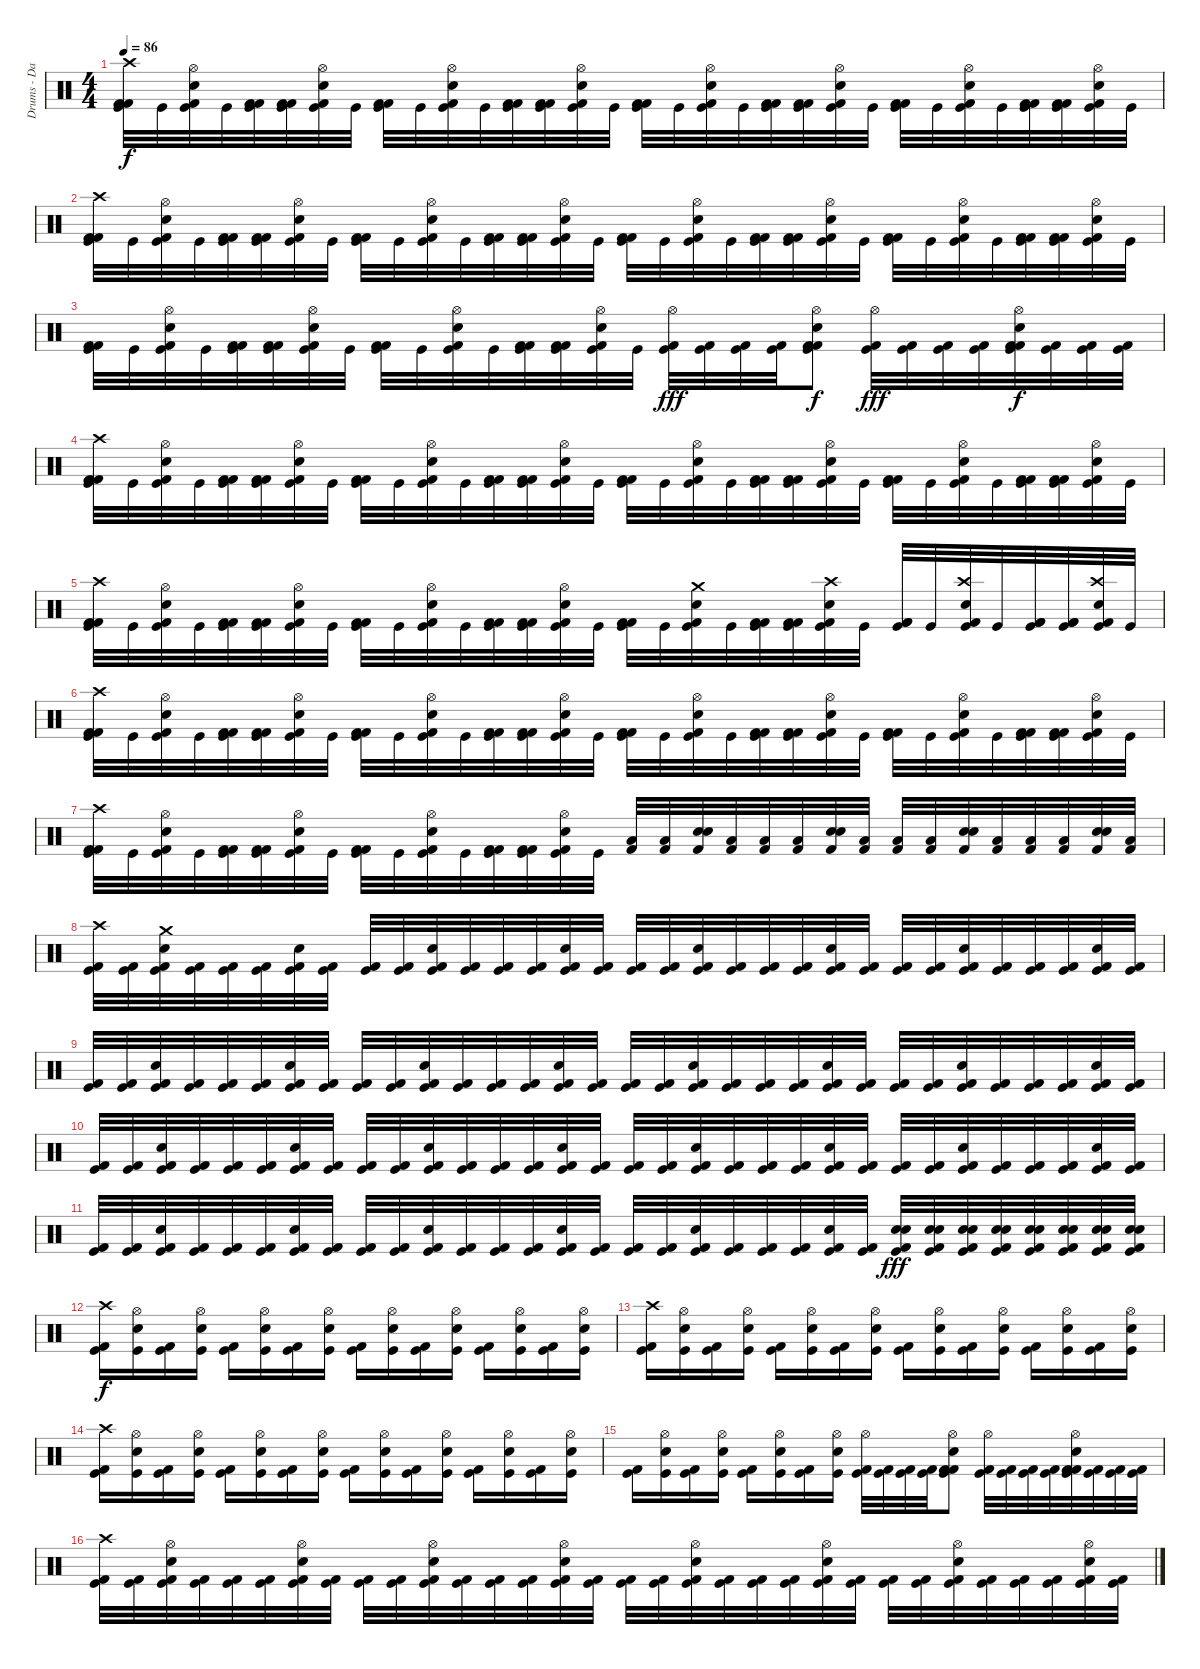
\track ("Drums - Daniel Zimmermann" "Drums - Da") {instrument percussion}
\staff {score}
\articulation defaults
\ts (4 4)
\tempo 86
\clef neutral
\ks c
("Kick (hit)" "Kick (hit) 2" "Kick (hit) 2" "Crash high (hit)").32{dy f} "Kick (hit)".32 ("Kick (hit)" "Kick (hit) 2" "Electric Snare (hit)" "Hi-Hat (open)").32 "Kick (hit)".32 ("Kick (hit)" "Kick (hit) 2" "Kick (hit) 2").32 ("Kick (hit)" "Kick (hit) 2" "Kick (hit) 2").32 ("Kick (hit)" "Kick (hit) 2" "Electric Snare (hit)" "Hi-Hat (open)").32 "Kick (hit)".32 ("Kick (hit)" "Kick (hit) 2" "Kick (hit) 2").32 "Kick (hit)".32 ("Kick (hit)" "Kick (hit) 2" "Electric Snare (hit)" "Hi-Hat (open)").32 "Kick (hit)".32 ("Kick (hit)" "Kick (hit) 2" "Kick (hit) 2").32 ("Kick (hit)" "Kick (hit) 2" "Kick (hit) 2").32 ("Kick (hit)" "Kick (hit) 2" "Electric Snare (hit)" "Hi-Hat (open)").32 "Kick (hit)".32 ("Kick (hit)" "Kick (hit) 2" "Kick (hit) 2").32 "Kick (hit)".32 ("Kick (hit)" "Kick (hit) 2" "Electric Snare (hit)" "Hi-Hat (open)").32 "Kick (hit)".32 ("Kick (hit)" "Kick (hit) 2" "Kick (hit) 2").32 ("Kick (hit)" "Kick (hit) 2" "Kick (hit) 2").32 ("Kick (hit)" "Kick (hit) 2" "Electric Snare (hit)" "Hi-Hat (open)").32 "Kick (hit)".32 ("Kick (hit)" "Kick (hit) 2" "Kick (hit) 2").32 "Kick (hit)".32 ("Kick (hit)" "Kick (hit) 2" "Electric Snare (hit)" "Hi-Hat (open)").32 "Kick (hit)".32 ("Kick (hit)" "Kick (hit) 2" "Kick (hit) 2").32 ("Kick (hit)" "Kick (hit) 2" "Kick (hit) 2").32 ("Kick (hit)" "Kick (hit) 2" "Electric Snare (hit)" "Hi-Hat (open)").32 "Kick (hit)".32 |
("Kick (hit)" "Kick (hit) 2" "Kick (hit) 2" "Crash high (hit)").32 "Kick (hit)".32 ("Kick (hit)" "Kick (hit) 2" "Electric Snare (hit)" "Hi-Hat (open)").32 "Kick (hit)".32 ("Kick (hit)" "Kick (hit) 2" "Kick (hit) 2").32 ("Kick (hit)" "Kick (hit) 2" "Kick (hit) 2").32 ("Kick (hit)" "Kick (hit) 2" "Electric Snare (hit)" "Hi-Hat (open)").32 "Kick (hit)".32 ("Kick (hit)" "Kick (hit) 2" "Kick (hit) 2").32 "Kick (hit)".32 ("Kick (hit)" "Kick (hit) 2" "Electric Snare (hit)" "Hi-Hat (open)").32 "Kick (hit)".32 ("Kick (hit)" "Kick (hit) 2" "Kick (hit) 2").32 ("Kick (hit)" "Kick (hit) 2" "Kick (hit) 2").32 ("Kick (hit)" "Kick (hit) 2" "Electric Snare (hit)" "Hi-Hat (open)").32 "Kick (hit)".32 ("Kick (hit)" "Kick (hit) 2" "Kick (hit) 2").32 "Kick (hit)".32 ("Kick (hit)" "Kick (hit) 2" "Electric Snare (hit)" "Hi-Hat (open)").32 "Kick (hit)".32 ("Kick (hit)" "Kick (hit) 2" "Kick (hit) 2").32 ("Kick (hit)" "Kick (hit) 2" "Kick (hit) 2").32 ("Kick (hit)" "Kick (hit) 2" "Electric Snare (hit)" "Hi-Hat (open)").32 "Kick (hit)".32 ("Kick (hit)" "Kick (hit) 2" "Kick (hit) 2").32 "Kick (hit)".32 ("Kick (hit)" "Kick (hit) 2" "Electric Snare (hit)" "Hi-Hat (open)").32 "Kick (hit)".32 ("Kick (hit)" "Kick (hit) 2" "Kick (hit) 2").32 ("Kick (hit)" "Kick (hit) 2" "Kick (hit) 2").32 ("Kick (hit)" "Kick (hit) 2" "Electric Snare (hit)" "Hi-Hat (open)").32 "Kick (hit)".32 |
("Kick (hit)" "Kick (hit) 2" "Kick (hit) 2").32 "Kick (hit)".32 ("Kick (hit)" "Kick (hit) 2" "Electric Snare (hit)" "Hi-Hat (open)").32 "Kick (hit)".32 ("Kick (hit)" "Kick (hit) 2" "Kick (hit) 2").32 ("Kick (hit)" "Kick (hit) 2" "Kick (hit) 2").32 ("Kick (hit)" "Kick (hit) 2" "Electric Snare (hit)" "Hi-Hat (open)").32 "Kick (hit)".32 ("Kick (hit)" "Kick (hit) 2" "Kick (hit) 2").32 "Kick (hit)".32 ("Kick (hit)" "Kick (hit) 2" "Electric Snare (hit)" "Hi-Hat (open)").32 "Kick (hit)".32 ("Kick (hit)" "Kick (hit) 2" "Kick (hit) 2").32 ("Kick (hit)" "Kick (hit) 2" "Kick (hit) 2").32 ("Kick (hit)" "Kick (hit) 2" "Electric Snare (hit)" "Hi-Hat (open)").32 "Kick (hit)".32 ("Kick (hit)" "Kick (hit) 2" "Hi-Hat (open)").32{dy fff} ("Kick (hit)" "Kick (hit) 2").32 ("Kick (hit)" "Kick (hit) 2").32 ("Kick (hit)" "Kick (hit) 2").32 ("Kick (hit)" "Kick (hit) 2" "Kick (hit) 2" "Electric Snare (hit)" "Hi-Hat (open)").8{dy f} ("Kick (hit)" "Kick (hit) 2" "Hi-Hat (open)").32{dy fff} ("Kick (hit)" "Kick (hit) 2").32 ("Kick (hit)" "Kick (hit) 2").32 ("Kick (hit)" "Kick (hit) 2").32 ("Kick (hit)" "Kick (hit) 2" "Kick (hit) 2" "Electric Snare (hit)" "Hi-Hat (open)").32{dy f} ("Kick (hit)" "Kick (hit) 2").32 ("Kick (hit)" "Kick (hit) 2").32 ("Kick (hit)" "Kick (hit) 2").32 |
("Kick (hit)" "Kick (hit) 2" "Kick (hit) 2" "Crash high (hit)").32 "Kick (hit)".32 ("Kick (hit)" "Kick (hit) 2" "Electric Snare (hit)" "Hi-Hat (open)").32 "Kick (hit)".32 ("Kick (hit)" "Kick (hit) 2" "Kick (hit) 2").32 ("Kick (hit)" "Kick (hit) 2" "Kick (hit) 2").32 ("Kick (hit)" "Kick (hit) 2" "Electric Snare (hit)" "Hi-Hat (open)").32 "Kick (hit)".32 ("Kick (hit)" "Kick (hit) 2" "Kick (hit) 2").32 "Kick (hit)".32 ("Kick (hit)" "Kick (hit) 2" "Electric Snare (hit)" "Hi-Hat (open)").32 "Kick (hit)".32 ("Kick (hit)" "Kick (hit) 2" "Kick (hit) 2").32 ("Kick (hit)" "Kick (hit) 2" "Kick (hit) 2").32 ("Kick (hit)" "Kick (hit) 2" "Electric Snare (hit)" "Hi-Hat (open)").32 "Kick (hit)".32 ("Kick (hit)" "Kick (hit) 2" "Kick (hit) 2").32 "Kick (hit)".32 ("Kick (hit)" "Kick (hit) 2" "Electric Snare (hit)" "Hi-Hat (open)").32 "Kick (hit)".32 ("Kick (hit)" "Kick (hit) 2" "Kick (hit) 2").32 ("Kick (hit)" "Kick (hit) 2" "Kick (hit) 2").32 ("Kick (hit)" "Kick (hit) 2" "Electric Snare (hit)" "Hi-Hat (open)").32 "Kick (hit)".32 ("Kick (hit)" "Kick (hit) 2" "Kick (hit) 2").32 "Kick (hit)".32 ("Kick (hit)" "Kick (hit) 2" "Electric Snare (hit)" "Hi-Hat (open)").32 "Kick (hit)".32 ("Kick (hit)" "Kick (hit) 2" "Kick (hit) 2").32 ("Kick (hit)" "Kick (hit) 2" "Kick (hit) 2").32 ("Kick (hit)" "Kick (hit) 2" "Electric Snare (hit)" "Hi-Hat (open)").32 "Kick (hit)".32 |
("Kick (hit)" "Kick (hit) 2" "Kick (hit) 2" "Crash high (hit)").32 "Kick (hit)".32 ("Kick (hit)" "Kick (hit) 2" "Electric Snare (hit)" "Hi-Hat (open)").32 "Kick (hit)".32 ("Kick (hit)" "Kick (hit) 2" "Kick (hit) 2").32 ("Kick (hit)" "Kick (hit) 2" "Kick (hit) 2").32 ("Kick (hit)" "Kick (hit) 2" "Electric Snare (hit)" "Hi-Hat (open)").32 "Kick (hit)".32 ("Kick (hit)" "Kick (hit) 2" "Kick (hit) 2").32 "Kick (hit)".32 ("Kick (hit)" "Kick (hit) 2" "Electric Snare (hit)" "Hi-Hat (open)").32 "Kick (hit)".32 ("Kick (hit)" "Kick (hit) 2" "Kick (hit) 2").32 ("Kick (hit)" "Kick (hit) 2" "Kick (hit) 2").32 ("Kick (hit)" "Kick (hit) 2" "Electric Snare (hit)" "Hi-Hat (open)").32 "Kick (hit)".32 ("Kick (hit)" "Kick (hit) 2" "Kick (hit) 2").32 "Kick (hit)".32 ("Kick (hit)" "Kick (hit) 2" "Electric Snare (hit)" "Crash medium (hit)").32 "Kick (hit)".32 ("Kick (hit)" "Kick (hit) 2" "Kick (hit) 2").32 ("Kick (hit)" "Kick (hit) 2" "Kick (hit) 2").32 ("Kick (hit)" "Kick (hit) 2" "Electric Snare (hit)" "Crash high (hit)").32 "Kick (hit)".32 ("Kick (hit)" "Kick (hit) 2" "Kick (hit) 2").32 "Kick (hit)".32 ("Kick (hit)" "Kick (hit) 2" "Electric Snare (hit)" "Crash high (hit)").32 "Kick (hit)".32 ("Kick (hit)" "Kick (hit) 2" "Kick (hit) 2").32 ("Kick (hit)" "Kick (hit) 2" "Kick (hit) 2").32 ("Kick (hit)" "Kick (hit) 2" "Electric Snare (hit)" "Crash high (hit)").32 "Kick (hit)".32 |
("Kick (hit)" "Kick (hit) 2" "Kick (hit) 2" "Crash high (hit)").32 "Kick (hit)".32 ("Kick (hit)" "Kick (hit) 2" "Electric Snare (hit)" "Hi-Hat (open)").32 "Kick (hit)".32 ("Kick (hit)" "Kick (hit) 2" "Kick (hit) 2").32 ("Kick (hit)" "Kick (hit) 2" "Kick (hit) 2").32 ("Kick (hit)" "Kick (hit) 2" "Electric Snare (hit)" "Hi-Hat (open)").32 "Kick (hit)".32 ("Kick (hit)" "Kick (hit) 2" "Kick (hit) 2").32 "Kick (hit)".32 ("Kick (hit)" "Kick (hit) 2" "Electric Snare (hit)" "Hi-Hat (open)").32 "Kick (hit)".32 ("Kick (hit)" "Kick (hit) 2" "Kick (hit) 2").32 ("Kick (hit)" "Kick (hit) 2" "Kick (hit) 2").32 ("Kick (hit)" "Kick (hit) 2" "Electric Snare (hit)" "Hi-Hat (open)").32 "Kick (hit)".32 ("Kick (hit)" "Kick (hit) 2" "Kick (hit) 2").32 "Kick (hit)".32 ("Kick (hit)" "Kick (hit) 2" "Electric Snare (hit)" "Hi-Hat (open)").32 "Kick (hit)".32 ("Kick (hit)" "Kick (hit) 2" "Kick (hit) 2").32 ("Kick (hit)" "Kick (hit) 2" "Kick (hit) 2").32 ("Kick (hit)" "Kick (hit) 2" "Electric Snare (hit)" "Hi-Hat (open)").32 "Kick (hit)".32 ("Kick (hit)" "Kick (hit) 2" "Kick (hit) 2").32 "Kick (hit)".32 ("Kick (hit)" "Kick (hit) 2" "Electric Snare (hit)" "Hi-Hat (open)").32 "Kick (hit)".32 ("Kick (hit)" "Kick (hit) 2" "Kick (hit) 2").32 ("Kick (hit)" "Kick (hit) 2" "Kick (hit) 2").32 ("Kick (hit)" "Kick (hit) 2" "Electric Snare (hit)" "Hi-Hat (open)").32 "Kick (hit)".32 |
("Kick (hit)" "Kick (hit) 2" "Kick (hit) 2" "Crash high (hit)").32 "Kick (hit)".32 ("Kick (hit)" "Kick (hit) 2" "Electric Snare (hit)" "Hi-Hat (open)").32 "Kick (hit)".32 ("Kick (hit)" "Kick (hit) 2" "Kick (hit) 2").32 ("Kick (hit)" "Kick (hit) 2" "Kick (hit) 2").32 ("Kick (hit)" "Kick (hit) 2" "Electric Snare (hit)" "Hi-Hat (open)").32 "Kick (hit)".32 ("Kick (hit)" "Kick (hit) 2" "Kick (hit) 2").32 "Kick (hit)".32 ("Kick (hit)" "Kick (hit) 2" "Electric Snare (hit)" "Hi-Hat (open)").32 "Kick (hit)".32 ("Kick (hit)" "Kick (hit) 2" "Kick (hit) 2").32 ("Kick (hit)" "Kick (hit) 2" "Kick (hit) 2").32 ("Kick (hit)" "Kick (hit) 2" "Electric Snare (hit)" "Hi-Hat (open)").32 "Kick (hit)".32 ("Kick (hit) 2" "Low Floor Tom (hit)").32 ("Kick (hit) 2" "Low Floor Tom (hit)").32 ("Kick (hit) 2" "Electric Snare (hit)" "Electric Snare (hit)").32 ("Kick (hit) 2" "Low Floor Tom (hit)").32 ("Kick (hit) 2" "Low Floor Tom (hit)").32 ("Kick (hit) 2" "Low Floor Tom (hit)").32 ("Kick (hit) 2" "Electric Snare (hit)" "Electric Snare (hit)").32 ("Kick (hit) 2" "Low Floor Tom (hit)").32 ("Kick (hit) 2" "Low Floor Tom (hit)").32 ("Kick (hit) 2" "Low Floor Tom (hit)").32 ("Kick (hit) 2" "Electric Snare (hit)" "Electric Snare (hit)").32 ("Kick (hit) 2" "Low Floor Tom (hit)").32 ("Kick (hit) 2" "Low Floor Tom (hit)").32 ("Kick (hit) 2" "Low Floor Tom (hit)").32 ("Kick (hit) 2" "Electric Snare (hit)" "Electric Snare (hit)").32 ("Kick (hit) 2" "Low Floor Tom (hit)").32 |
("Kick (hit)" "Kick (hit) 2" "Crash high (hit)").32 ("Kick (hit)" "Kick (hit) 2").32 ("Kick (hit)" "Kick (hit) 2" "Electric Snare (hit)" "Crash medium (hit)").32 ("Kick (hit)" "Kick (hit) 2").32 ("Kick (hit)" "Kick (hit) 2").32 ("Kick (hit)" "Kick (hit) 2").32 ("Kick (hit)" "Kick (hit) 2" "Electric Snare (hit)").32 ("Kick (hit)" "Kick (hit) 2").32 ("Kick (hit)" "Kick (hit) 2").32 ("Kick (hit)" "Kick (hit) 2").32 ("Kick (hit)" "Kick (hit) 2" "Electric Snare (hit)").32 ("Kick (hit)" "Kick (hit) 2").32 ("Kick (hit)" "Kick (hit) 2").32 ("Kick (hit)" "Kick (hit) 2").32 ("Kick (hit)" "Kick (hit) 2" "Electric Snare (hit)").32 ("Kick (hit)" "Kick (hit) 2").32 ("Kick (hit)" "Kick (hit) 2").32 ("Kick (hit)" "Kick (hit) 2").32 ("Kick (hit)" "Kick (hit) 2" "Electric Snare (hit)").32 ("Kick (hit)" "Kick (hit) 2").32 ("Kick (hit)" "Kick (hit) 2").32 ("Kick (hit)" "Kick (hit) 2").32 ("Kick (hit)" "Kick (hit) 2" "Electric Snare (hit)").32 ("Kick (hit)" "Kick (hit) 2").32 ("Kick (hit)" "Kick (hit) 2").32 ("Kick (hit)" "Kick (hit) 2").32 ("Kick (hit)" "Kick (hit) 2" "Electric Snare (hit)").32 ("Kick (hit)" "Kick (hit) 2").32 ("Kick (hit)" "Kick (hit) 2").32 ("Kick (hit)" "Kick (hit) 2").32 ("Kick (hit)" "Kick (hit) 2" "Electric Snare (hit)").32 ("Kick (hit)" "Kick (hit) 2").32 |
("Kick (hit)" "Kick (hit) 2").32 ("Kick (hit)" "Kick (hit) 2").32 ("Kick (hit)" "Kick (hit) 2" "Electric Snare (hit)").32 ("Kick (hit)" "Kick (hit) 2").32 ("Kick (hit)" "Kick (hit) 2").32 ("Kick (hit)" "Kick (hit) 2").32 ("Kick (hit)" "Kick (hit) 2" "Electric Snare (hit)").32 ("Kick (hit)" "Kick (hit) 2").32 ("Kick (hit)" "Kick (hit) 2").32 ("Kick (hit)" "Kick (hit) 2").32 ("Kick (hit)" "Kick (hit) 2" "Electric Snare (hit)").32 ("Kick (hit)" "Kick (hit) 2").32 ("Kick (hit)" "Kick (hit) 2").32 ("Kick (hit)" "Kick (hit) 2").32 ("Kick (hit)" "Kick (hit) 2" "Electric Snare (hit)").32 ("Kick (hit)" "Kick (hit) 2").32 ("Kick (hit)" "Kick (hit) 2").32 ("Kick (hit)" "Kick (hit) 2").32 ("Kick (hit)" "Kick (hit) 2" "Electric Snare (hit)").32 ("Kick (hit)" "Kick (hit) 2").32 ("Kick (hit)" "Kick (hit) 2").32 ("Kick (hit)" "Kick (hit) 2").32 ("Kick (hit)" "Kick (hit) 2" "Electric Snare (hit)").32 ("Kick (hit)" "Kick (hit) 2").32 ("Kick (hit)" "Kick (hit) 2").32 ("Kick (hit)" "Kick (hit) 2").32 ("Kick (hit)" "Kick (hit) 2" "Electric Snare (hit)").32 ("Kick (hit)" "Kick (hit) 2").32 ("Kick (hit)" "Kick (hit) 2").32 ("Kick (hit)" "Kick (hit) 2").32 ("Kick (hit)" "Kick (hit) 2" "Electric Snare (hit)").32 ("Kick (hit)" "Kick (hit) 2").32 |
("Kick (hit)" "Kick (hit) 2").32 ("Kick (hit)" "Kick (hit) 2").32 ("Kick (hit)" "Kick (hit) 2" "Electric Snare (hit)").32 ("Kick (hit)" "Kick (hit) 2").32 ("Kick (hit)" "Kick (hit) 2").32 ("Kick (hit)" "Kick (hit) 2").32 ("Kick (hit)" "Kick (hit) 2" "Electric Snare (hit)").32 ("Kick (hit)" "Kick (hit) 2").32 ("Kick (hit)" "Kick (hit) 2").32 ("Kick (hit)" "Kick (hit) 2").32 ("Kick (hit)" "Kick (hit) 2" "Electric Snare (hit)").32 ("Kick (hit)" "Kick (hit) 2").32 ("Kick (hit)" "Kick (hit) 2").32 ("Kick (hit)" "Kick (hit) 2").32 ("Kick (hit)" "Kick (hit) 2" "Electric Snare (hit)").32 ("Kick (hit)" "Kick (hit) 2").32 ("Kick (hit)" "Kick (hit) 2").32 ("Kick (hit)" "Kick (hit) 2").32 ("Kick (hit)" "Kick (hit) 2" "Electric Snare (hit)").32 ("Kick (hit)" "Kick (hit) 2").32 ("Kick (hit)" "Kick (hit) 2").32 ("Kick (hit)" "Kick (hit) 2").32 ("Kick (hit)" "Kick (hit) 2" "Electric Snare (hit)").32 ("Kick (hit)" "Kick (hit) 2").32 ("Kick (hit)" "Kick (hit) 2").32 ("Kick (hit)" "Kick (hit) 2").32 ("Kick (hit)" "Kick (hit) 2" "Electric Snare (hit)").32 ("Kick (hit)" "Kick (hit) 2").32 ("Kick (hit)" "Kick (hit) 2").32 ("Kick (hit)" "Kick (hit) 2").32 ("Kick (hit)" "Kick (hit) 2" "Electric Snare (hit)").32 ("Kick (hit)" "Kick (hit) 2").32 |
("Kick (hit)" "Kick (hit) 2").32 ("Kick (hit)" "Kick (hit) 2").32 ("Kick (hit)" "Kick (hit) 2" "Electric Snare (hit)").32 ("Kick (hit)" "Kick (hit) 2").32 ("Kick (hit)" "Kick (hit) 2").32 ("Kick (hit)" "Kick (hit) 2").32 ("Kick (hit)" "Kick (hit) 2" "Electric Snare (hit)").32 ("Kick (hit)" "Kick (hit) 2").32 ("Kick (hit)" "Kick (hit) 2").32 ("Kick (hit)" "Kick (hit) 2").32 ("Kick (hit)" "Kick (hit) 2" "Electric Snare (hit)").32 ("Kick (hit)" "Kick (hit) 2").32 ("Kick (hit)" "Kick (hit) 2").32 ("Kick (hit)" "Kick (hit) 2").32 ("Kick (hit)" "Kick (hit) 2" "Electric Snare (hit)").32 ("Kick (hit)" "Kick (hit) 2").32 ("Kick (hit)" "Kick (hit) 2").32 ("Kick (hit)" "Kick (hit) 2").32 ("Kick (hit)" "Kick (hit) 2" "Electric Snare (hit)").32 ("Kick (hit)" "Kick (hit) 2").32 ("Kick (hit)" "Kick (hit) 2").32 ("Kick (hit)" "Kick (hit) 2").32 ("Kick (hit)" "Kick (hit) 2" "Electric Snare (hit)").32 ("Kick (hit)" "Kick (hit) 2").32 ("Kick (hit)" "Kick (hit) 2" "Snare (hit) 2" "Electric Snare (hit)").32{dy fff} ("Kick (hit)" "Kick (hit) 2" "Snare (hit) 2" "Electric Snare (hit)").32 ("Kick (hit)" "Kick (hit) 2" "Snare (hit) 2" "Electric Snare (hit)").32 ("Kick (hit)" "Kick (hit) 2" "Snare (hit) 2" "Electric Snare (hit)").32 ("Kick (hit)" "Kick (hit) 2" "Snare (hit) 2" "Electric Snare (hit)").32 ("Kick (hit)" "Kick (hit) 2" "Snare (hit) 2" "Electric Snare (hit)").32 ("Kick (hit)" "Kick (hit) 2" "Snare (hit) 2" "Electric Snare (hit)").32 ("Kick (hit)" "Kick (hit) 2" "Snare (hit) 2" "Electric Snare (hit)").32 |
("Kick (hit)" "Kick (hit) 2" "Crash high (hit)").16{dy f} ("Kick (hit)" "Hi-Hat (open)" "Electric Snare (hit)").16 ("Kick (hit)" "Kick (hit) 2").16 ("Kick (hit)" "Hi-Hat (open)" "Electric Snare (hit)").16 ("Kick (hit)" "Kick (hit) 2").16 ("Kick (hit)" "Hi-Hat (open)" "Electric Snare (hit)").16 ("Kick (hit)" "Kick (hit) 2").16 ("Kick (hit)" "Hi-Hat (open)" "Electric Snare (hit)").16 ("Kick (hit)" "Kick (hit) 2").16 ("Kick (hit)" "Hi-Hat (open)" "Electric Snare (hit)").16 ("Kick (hit)" "Kick (hit) 2").16 ("Kick (hit)" "Hi-Hat (open)" "Electric Snare (hit)").16 ("Kick (hit)" "Kick (hit) 2").16 ("Kick (hit)" "Hi-Hat (open)" "Electric Snare (hit)").16 ("Kick (hit)" "Kick (hit) 2").16 ("Kick (hit)" "Hi-Hat (open)" "Electric Snare (hit)").16 |
("Kick (hit)" "Kick (hit) 2" "Crash high (hit)").16 ("Kick (hit)" "Hi-Hat (open)" "Electric Snare (hit)").16 ("Kick (hit)" "Kick (hit) 2").16 ("Kick (hit)" "Hi-Hat (open)" "Electric Snare (hit)").16 ("Kick (hit)" "Kick (hit) 2").16 ("Kick (hit)" "Hi-Hat (open)" "Electric Snare (hit)").16 ("Kick (hit)" "Kick (hit) 2").16 ("Kick (hit)" "Hi-Hat (open)" "Electric Snare (hit)").16 ("Kick (hit)" "Kick (hit) 2").16 ("Kick (hit)" "Hi-Hat (open)" "Electric Snare (hit)").16 ("Kick (hit)" "Kick (hit) 2").16 ("Kick (hit)" "Hi-Hat (open)" "Electric Snare (hit)").16 ("Kick (hit)" "Kick (hit) 2").16 ("Kick (hit)" "Hi-Hat (open)" "Electric Snare (hit)").16 ("Kick (hit)" "Kick (hit) 2").16 ("Kick (hit)" "Hi-Hat (open)" "Electric Snare (hit)").16 |
("Kick (hit)" "Kick (hit) 2" "Crash high (hit)").16 ("Kick (hit)" "Hi-Hat (open)" "Electric Snare (hit)").16 ("Kick (hit)" "Kick (hit) 2").16 ("Kick (hit)" "Hi-Hat (open)" "Electric Snare (hit)").16 ("Kick (hit)" "Kick (hit) 2").16 ("Kick (hit)" "Hi-Hat (open)" "Electric Snare (hit)").16 ("Kick (hit)" "Kick (hit) 2").16 ("Kick (hit)" "Hi-Hat (open)" "Electric Snare (hit)").16 ("Kick (hit)" "Kick (hit) 2").16 ("Kick (hit)" "Hi-Hat (open)" "Electric Snare (hit)").16 ("Kick (hit)" "Kick (hit) 2").16 ("Kick (hit)" "Hi-Hat (open)" "Electric Snare (hit)").16 ("Kick (hit)" "Kick (hit) 2").16 ("Kick (hit)" "Hi-Hat (open)" "Electric Snare (hit)").16 ("Kick (hit)" "Kick (hit) 2").16 ("Kick (hit)" "Hi-Hat (open)" "Electric Snare (hit)").16 |
("Kick (hit)" "Kick (hit) 2").16 ("Kick (hit)" "Hi-Hat (open)" "Electric Snare (hit)").16 ("Kick (hit)" "Kick (hit) 2").16 ("Kick (hit)" "Hi-Hat (open)" "Electric Snare (hit)").16 ("Kick (hit)" "Kick (hit) 2").16 ("Kick (hit)" "Hi-Hat (open)" "Electric Snare (hit)").16 ("Kick (hit)" "Kick (hit) 2").16 ("Kick (hit)" "Hi-Hat (open)" "Electric Snare (hit)").16 ("Kick (hit)" "Kick (hit) 2" "Hi-Hat (open)").32 ("Kick (hit)" "Kick (hit) 2").32 ("Kick (hit)" "Kick (hit) 2").32 ("Kick (hit)" "Kick (hit) 2").32 ("Kick (hit)" "Kick (hit) 2" "Kick (hit) 2" "Electric Snare (hit)" "Hi-Hat (open)").8 ("Kick (hit)" "Kick (hit) 2" "Hi-Hat (open)").32 ("Kick (hit)" "Kick (hit) 2").32 ("Kick (hit)" "Kick (hit) 2").32 ("Kick (hit)" "Kick (hit) 2").32 ("Kick (hit)" "Kick (hit) 2" "Kick (hit) 2" "Electric Snare (hit)" "Hi-Hat (open)").32 ("Kick (hit)" "Kick (hit) 2").32 ("Kick (hit)" "Kick (hit) 2").32 ("Kick (hit)" "Kick (hit) 2").32 |
("Kick (hit)" "Kick (hit) 2" "Crash high (hit)").32 ("Kick (hit)" "Kick (hit) 2").32 ("Kick (hit)" "Kick (hit) 2" "Electric Snare (hit)" "Hi-Hat (open)").32 ("Kick (hit)" "Kick (hit) 2").32 ("Kick (hit)" "Kick (hit) 2").32 ("Kick (hit)" "Kick (hit) 2").32 ("Kick (hit)" "Kick (hit) 2" "Electric Snare (hit)" "Hi-Hat (open)").32 ("Kick (hit)" "Kick (hit) 2").32 ("Kick (hit)" "Kick (hit) 2").32 ("Kick (hit)" "Kick (hit) 2").32 ("Kick (hit)" "Kick (hit) 2" "Electric Snare (hit)" "Hi-Hat (open)").32 ("Kick (hit)" "Kick (hit) 2").32 ("Kick (hit)" "Kick (hit) 2").32 ("Kick (hit)" "Kick (hit) 2").32 ("Kick (hit)" "Kick (hit) 2" "Electric Snare (hit)" "Hi-Hat (open)").32 ("Kick (hit)" "Kick (hit) 2").32 ("Kick (hit)" "Kick (hit) 2").32 ("Kick (hit)" "Kick (hit) 2").32 ("Kick (hit)" "Kick (hit) 2" "Electric Snare (hit)" "Hi-Hat (open)").32 ("Kick (hit)" "Kick (hit) 2").32 ("Kick (hit)" "Kick (hit) 2").32 ("Kick (hit)" "Kick (hit) 2").32 ("Kick (hit)" "Kick (hit) 2" "Electric Snare (hit)" "Hi-Hat (open)").32 ("Kick (hit)" "Kick (hit) 2").32 ("Kick (hit)" "Kick (hit) 2").32 ("Kick (hit)" "Kick (hit) 2").32 ("Kick (hit)" "Kick (hit) 2" "Electric Snare (hit)" "Hi-Hat (open)").32 ("Kick (hit)" "Kick (hit) 2").32 ("Kick (hit)" "Kick (hit) 2").32 ("Kick (hit)" "Kick (hit) 2").32 ("Kick (hit)" "Kick (hit) 2" "Electric Snare (hit)" "Hi-Hat (open)").32 ("Kick (hit)" "Kick (hit) 2").32
